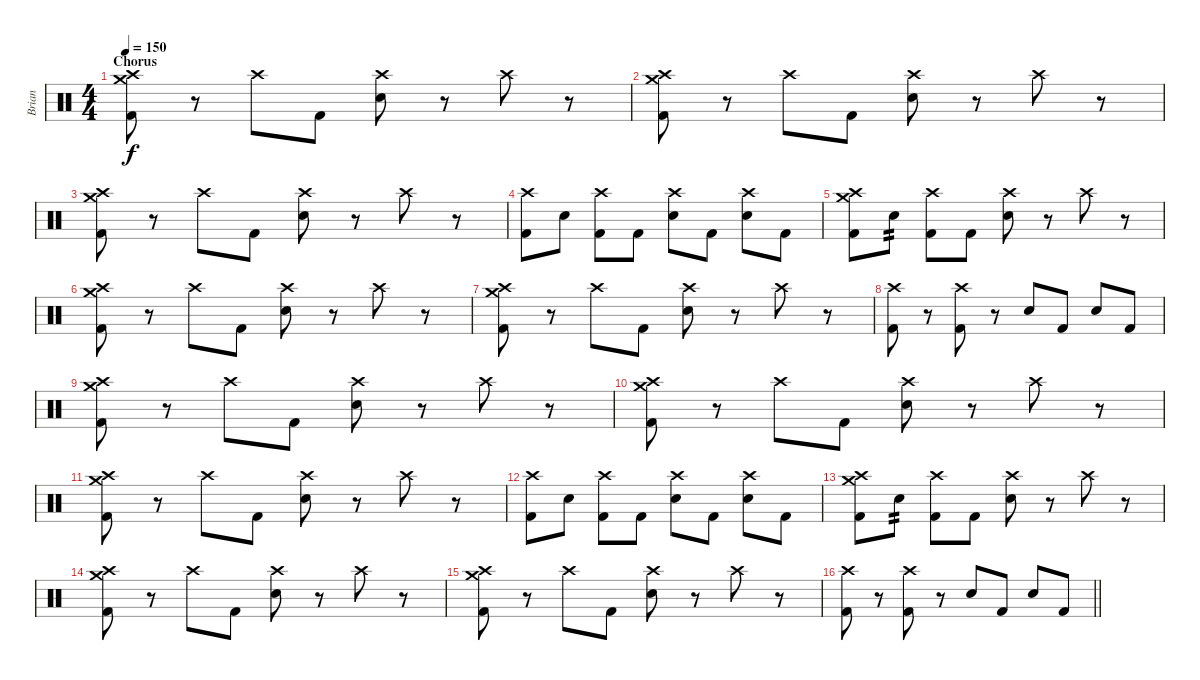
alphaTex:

\track ("Brian" "Brian") {instrument percussion}
\staff {score}
\articulation defaults
\ts (4 4)
\section ("" "Chorus")
\tempo 150
\clef neutral
\ks c
("Crash high (hit)" "Crash medium (hit)" "Kick (hit) 2").8{dy f} r.8 "Crash high (hit)".8 "Kick (hit) 2".8 ("Crash high (hit)" "Snare (hit) 2").8 r.8 "Crash high (hit)".8 r.8 |
("Crash high (hit)" "Crash medium (hit)" "Kick (hit) 2").8 r.8 "Crash high (hit)".8 "Kick (hit) 2".8 ("Crash high (hit)" "Snare (hit) 2").8 r.8 "Crash high (hit)".8 r.8 |
("Crash high (hit)" "Crash medium (hit)" "Kick (hit) 2").8 r.8 "Crash high (hit)".8 "Kick (hit) 2".8 ("Crash high (hit)" "Snare (hit) 2").8 r.8 "Crash high (hit)".8 r.8 |
("Crash high (hit)" "Kick (hit) 2").8 "Snare (hit) 2".8 ("Crash high (hit)" "Kick (hit) 2").8 "Kick (hit) 2".8 ("Crash high (hit)" "Snare (hit) 2").8 "Kick (hit) 2".8 ("Crash high (hit)" "Snare (hit) 2").8 "Kick (hit) 2".8 |
("Crash high (hit)" "Crash medium (hit)" "Kick (hit) 2").8 "Snare (hit) 2".8{tp 2} ("Crash high (hit)" "Kick (hit) 2").8 "Kick (hit) 2".8 ("Crash high (hit)" "Snare (hit) 2").8 r.8 "Crash high (hit)".8 r.8 |
("Crash high (hit)" "Crash medium (hit)" "Kick (hit) 2").8 r.8 "Crash high (hit)".8 "Kick (hit) 2".8 ("Crash high (hit)" "Snare (hit) 2").8 r.8 "Crash high (hit)".8 r.8 |
("Crash high (hit)" "Crash medium (hit)" "Kick (hit) 2").8 r.8 "Crash high (hit)".8 "Kick (hit) 2".8 ("Crash high (hit)" "Snare (hit) 2").8 r.8 "Crash high (hit)".8 r.8 |
("Crash high (hit)" "Kick (hit) 2").8 r.8 ("Crash high (hit)" "Kick (hit) 2").8 r.8 "Snare (hit) 2".8 "Kick (hit) 2".8 "Snare (hit) 2".8 "Kick (hit) 2".8 |
("Crash high (hit)" "Crash medium (hit)" "Kick (hit) 2").8 r.8 "Crash high (hit)".8 "Kick (hit) 2".8 ("Crash high (hit)" "Snare (hit) 2").8 r.8 "Crash high (hit)".8 r.8 |
("Crash high (hit)" "Crash medium (hit)" "Kick (hit) 2").8 r.8 "Crash high (hit)".8 "Kick (hit) 2".8 ("Crash high (hit)" "Snare (hit) 2").8 r.8 "Crash high (hit)".8 r.8 |
("Crash high (hit)" "Crash medium (hit)" "Kick (hit) 2").8 r.8 "Crash high (hit)".8 "Kick (hit) 2".8 ("Crash high (hit)" "Snare (hit) 2").8 r.8 "Crash high (hit)".8 r.8 |
("Crash high (hit)" "Kick (hit) 2").8 "Snare (hit) 2".8 ("Crash high (hit)" "Kick (hit) 2").8 "Kick (hit) 2".8 ("Crash high (hit)" "Snare (hit) 2").8 "Kick (hit) 2".8 ("Crash high (hit)" "Snare (hit) 2").8 "Kick (hit) 2".8 |
("Crash high (hit)" "Crash medium (hit)" "Kick (hit) 2").8 "Snare (hit) 2".8{tp 2} ("Crash high (hit)" "Kick (hit) 2").8 "Kick (hit) 2".8 ("Crash high (hit)" "Snare (hit) 2").8 r.8 "Crash high (hit)".8 r.8 |
("Crash high (hit)" "Crash medium (hit)" "Kick (hit) 2").8 r.8 "Crash high (hit)".8 "Kick (hit) 2".8 ("Crash high (hit)" "Snare (hit) 2").8 r.8 "Crash high (hit)".8 r.8 |
("Crash high (hit)" "Crash medium (hit)" "Kick (hit) 2").8 r.8 "Crash high (hit)".8 "Kick (hit) 2".8 ("Crash high (hit)" "Snare (hit) 2").8 r.8 "Crash high (hit)".8 r.8 |
\barLineRight lightlight
("Crash high (hit)" "Kick (hit) 2").8 r.8 ("Crash high (hit)" "Kick (hit) 2").8 r.8 "Snare (hit) 2".8 "Kick (hit) 2".8 "Snare (hit) 2".8 "Kick (hit) 2".8
